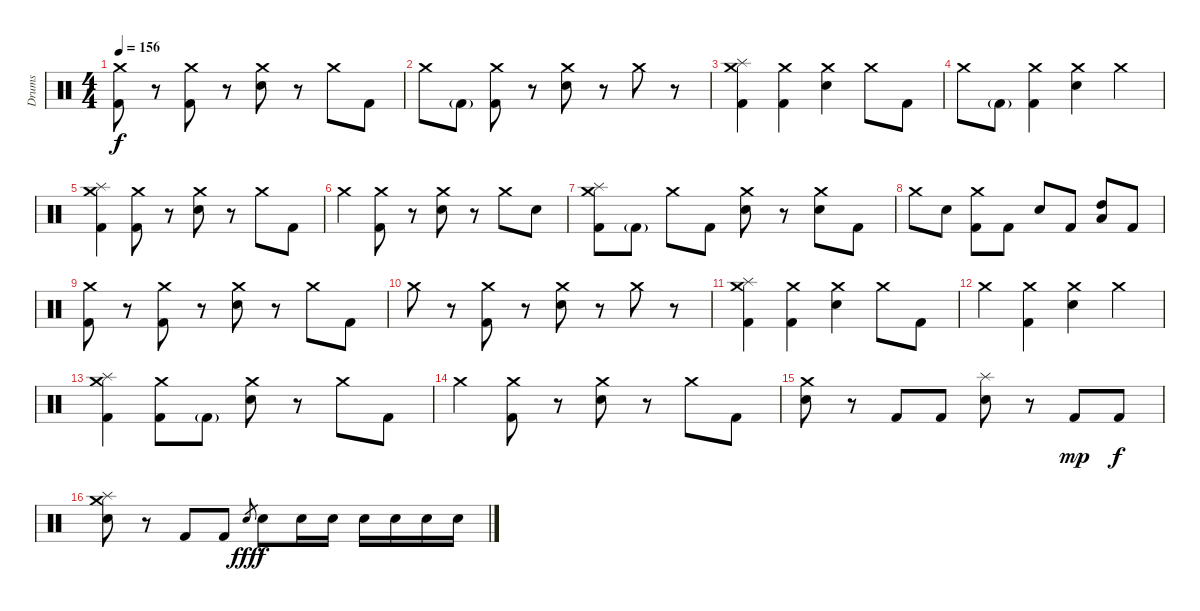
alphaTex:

\track ("Drums" "Drums") {instrument percussion}
\staff {score}
\articulation defaults
\ts (4 4)
\tempo 156
\clef neutral
\ks c
("Crash medium (hit)" "Kick (hit) 2").8{dy f} r.8 ("Crash medium (hit)" "Kick (hit) 2").8 r.8 ("Crash medium (hit)" "Electric Snare (hit)").8 r.8 "Crash medium (hit)".8 "Kick (hit) 2".8 |
"Crash medium (hit)".8 "Kick (hit) 2"{g}.8 ("Crash medium (hit)" "Kick (hit) 2").8 r.8 ("Crash medium (hit)" "Electric Snare (hit)").8 r.8 "Crash medium (hit)".8 r.8 |
("Crash medium (hit)" "Splash (hit)" "Kick (hit) 2").4 ("Crash medium (hit)" "Kick (hit) 2").4 ("Crash medium (hit)" "Electric Snare (hit)").4 "Crash medium (hit)".8 "Kick (hit) 2".8 |
"Crash medium (hit)".8 "Kick (hit) 2"{g}.8 ("Crash medium (hit)" "Kick (hit) 2").4 ("Crash medium (hit)" "Electric Snare (hit)").4 "Crash medium (hit)".4 |
("Crash medium (hit)" "Splash (hit)" "Kick (hit) 2").4 ("Crash medium (hit)" "Kick (hit) 2").8 r.8 ("Crash medium (hit)" "Electric Snare (hit)").8 r.8 "Crash medium (hit)".8 "Kick (hit) 2".8 |
"Crash medium (hit)".4 ("Crash medium (hit)" "Kick (hit) 2").8 r.8 ("Crash medium (hit)" "Electric Snare (hit)").8 r.8 "Crash medium (hit)".8 "Electric Snare (hit)".8 |
("Crash medium (hit)" "Splash (hit)" "Kick (hit) 2").8 "Kick (hit) 2"{g}.8 "Crash medium (hit)".8 "Kick (hit) 2".8 ("Crash medium (hit)" "Electric Snare (hit)").8 r.8 ("Crash medium (hit)" "Electric Snare (hit)").8 "Kick (hit) 2".8 |
"Crash medium (hit)".8 "Electric Snare (hit)".8 ("Crash medium (hit)" "Kick (hit) 2").8 "Kick (hit) 2".8 "Electric Snare (hit)".8 "Kick (hit) 2".8 ("High Tom (hit)" "Low Tom (hit)").8 "Kick (hit) 2".8 |
("Crash medium (hit)" "Kick (hit) 2").8 r.8 ("Crash medium (hit)" "Kick (hit) 2").8 r.8 ("Crash medium (hit)" "Electric Snare (hit)").8 r.8 "Crash medium (hit)".8 "Kick (hit) 2".8 |
"Crash medium (hit)".8 r.8 ("Crash medium (hit)" "Kick (hit) 2").8 r.8 ("Crash medium (hit)" "Electric Snare (hit)").8 r.8 "Crash medium (hit)".8 r.8 |
("Crash medium (hit)" "Splash (hit)" "Kick (hit) 2").4 ("Crash medium (hit)" "Kick (hit) 2").4 ("Crash medium (hit)" "Electric Snare (hit)").4 "Crash medium (hit)".8 "Kick (hit) 2".8 |
"Crash medium (hit)".4 ("Crash medium (hit)" "Kick (hit) 2").4 ("Crash medium (hit)" "Electric Snare (hit)").4 "Crash medium (hit)".4 |
("Crash medium (hit)" "Splash (hit)" "Kick (hit) 2").4 ("Crash medium (hit)" "Kick (hit) 2").8 "Kick (hit) 2"{g}.8 ("Crash medium (hit)" "Electric Snare (hit)").8 r.8 "Crash medium (hit)".8 "Kick (hit) 2".8 |
"Crash medium (hit)".4 ("Crash medium (hit)" "Kick (hit) 2").8 r.8 ("Crash medium (hit)" "Electric Snare (hit)").8 r.8 "Crash medium (hit)".8 "Kick (hit) 2".8 |
("Crash medium (hit)" "Electric Snare (hit)").8 r.8 "Kick (hit) 2".8 "Kick (hit) 2".8 ("Splash (hit)" "Electric Snare (hit)").8 r.8 "Kick (hit) 2".8{dy mp} "Kick (hit) 2".8{dy f} |
("Crash medium (hit)" "Splash (hit)" "Electric Snare (hit)").8 r.8 "Kick (hit) 2".8 "Kick (hit) 2".8 "Electric Snare (hit)".8{gr dy fff} "Electric Snare (hit)".8{dy f} "Electric Snare (hit)".16 "Electric Snare (hit)".16 "Electric Snare (hit)".16 "Electric Snare (hit)".16 "Electric Snare (hit)".16 "Electric Snare (hit)".16
